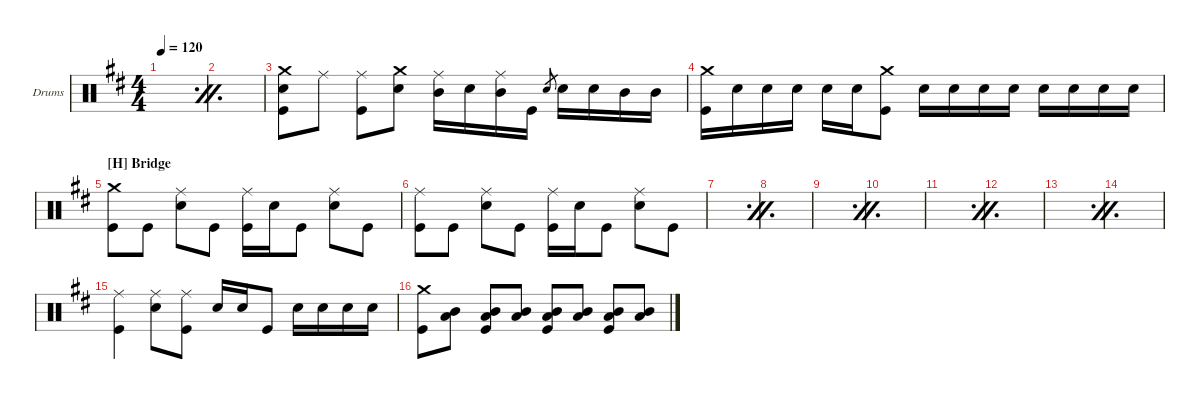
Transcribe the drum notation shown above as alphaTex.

\hideDynamics
\bracketExtendMode nobrackets
\firstSystemTrackNameOrientation horizontal
\otherSystemsTrackNameOrientation horizontal
\track ("Drums" "Drums") {instrument percussion}
\staff {score}
\articulation defaults
\ts (4 4)
\tempo 120
\clef neutral
\simile firstofdouble
\ks bminor
|
\simile secondofdouble
|
("Kick (hit)" "Snare (hit) 2" "Crash medium (hit)").8 "Ride (middle)".8 ("Kick (hit)" "Ride (middle)").8 ("Snare (hit) 2" "Crash medium (hit)").8 ("Ride (middle)" "Mid Tom (hit)").16 "Snare (hit) 2".16 ("Mid Tom (hit)" "Ride (middle)").16 "Kick (hit)".16 "Snare (hit) 2".8{gr} "Snare (hit) 2".16 "Snare (hit) 2".16 "Mid Tom (hit)".16 "Mid Tom (hit)".16 |
("Kick (hit)" "Crash medium (hit)").16 "Snare (hit) 2".16 "Snare (hit) 2".16 "Snare (hit) 2".16 "Snare (hit) 2".16 "Snare (hit) 2".16 ("Kick (hit)" "Crash medium (hit)").8 "Snare (hit) 2".16 "Snare (hit) 2".16 "Snare (hit) 2".16 "Snare (hit) 2".16 "Snare (hit) 2".16 "Snare (hit) 2".16 "Snare (hit) 2".16 "Snare (hit) 2".16 |
\section ("H" "Bridge")
("Kick (hit)" "Crash medium (hit)").8 "Kick (hit)".8 ("Snare (hit) 2" "Ride (middle)").8 "Kick (hit)".8 ("Kick (hit)" "Ride (middle)").16 "Snare (hit) 2".16 "Kick (hit)".8 ("Snare (hit) 2" "Ride (middle)").8 "Kick (hit)".8 |
("Kick (hit)" "Ride (middle)").8 "Kick (hit)".8 ("Snare (hit) 2" "Ride (middle)").8 "Kick (hit)".8 ("Kick (hit)" "Ride (middle)").16 "Snare (hit) 2".16 "Kick (hit)".8 ("Snare (hit) 2" "Ride (middle)").8 "Kick (hit)".8 |
\simile firstofdouble
|
\simile secondofdouble
|
\simile firstofdouble
|
\simile secondofdouble
|
\simile firstofdouble
|
\simile secondofdouble
|
\simile firstofdouble
|
\simile secondofdouble
|
\simile none
("Kick (hit)" "Ride (middle)").4 ("Snare (hit) 2" "Ride (middle)").8 ("Kick (hit)" "Ride (middle)").8 "Snare (hit) 2".16 "Snare (hit) 2".16 "Kick (hit)".8 "Snare (hit) 2".16 "Snare (hit) 2".16 "Snare (hit) 2".16 "Snare (hit) 2".16 |
("Kick (hit)" "Crash medium (hit)").8 ("Low Tom (hit)" "Mid Tom (hit)").8 ("Kick (hit)" "Low Tom (hit)" "Mid Tom (hit)").8 ("Low Tom (hit)" "Mid Tom (hit)").8 ("Kick (hit)" "Low Tom (hit)" "Mid Tom (hit)").8 ("Low Tom (hit)" "Mid Tom (hit)").8 ("Kick (hit)" "Low Tom (hit)" "Mid Tom (hit)").8 ("Low Tom (hit)" "Mid Tom (hit)").8
